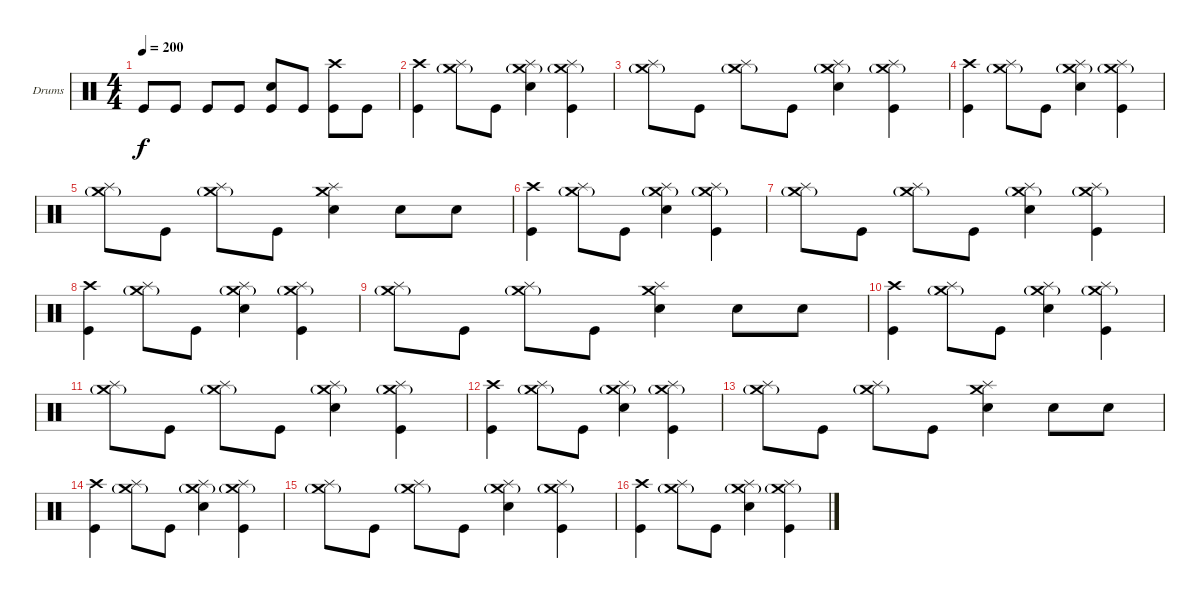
\bracketExtendMode groupsimilarinstruments
\firstSystemTrackNameOrientation horizontal
\otherSystemsTrackNameOrientation horizontal
\track ("Canadien" "Drums") {instrument percussion}
\staff {score}
\articulation defaults
\ts (4 4)
\tempo 200
\clef neutral
\ks c "Kick (hit)".8{dy f} "Kick (hit)".8 "Kick (hit)".8 "Kick (hit)".8
("Snare (hit) 2" "Kick (hit)").8 "Kick (hit)".8 ("Crash high (hit)" "Kick (hit)").8 "Kick (hit)".8 |
("Crash high (hit)" "Kick (hit)").4 ("Crash medium (hit)"{g} "Splash (hit)").8 "Kick (hit)".8 ("Crash medium (hit)"{g} "Splash (hit)" "Snare (hit) 2").4 ("Crash medium (hit)"{g} "Splash (hit)" "Kick (hit)").4 |
("Crash medium (hit)"{g} "Splash (hit)").8 "Kick (hit)".8 ("Crash medium (hit)"{g} "Splash (hit)").8 "Kick (hit)".8 ("Crash medium (hit)"{g} "Splash (hit)" "Snare (hit) 2").4 ("Crash medium (hit)"{g} "Splash (hit)" "Kick (hit)").4 |
("Crash high (hit)" "Kick (hit)").4 ("Crash medium (hit)"{g} "Splash (hit)").8 "Kick (hit)".8 ("Crash medium (hit)"{g} "Splash (hit)" "Snare (hit) 2").4 ("Crash medium (hit)"{g} "Splash (hit)" "Kick (hit)").4 |
("Crash medium (hit)"{g} "Splash (hit)").8 "Kick (hit)".8 ("Crash medium (hit)"{g} "Splash (hit)").8 "Kick (hit)".8 ("Crash medium (hit)" "Splash (hit)" "Snare (hit) 2").4 "Snare (hit) 2".8 "Snare (hit) 2".8 |
("Crash high (hit)" "Kick (hit)").4 ("Crash medium (hit)"{g} "Splash (hit)").8 "Kick (hit)".8 ("Crash medium (hit)"{g} "Splash (hit)" "Snare (hit) 2").4 ("Crash medium (hit)"{g} "Splash (hit)" "Kick (hit)").4 |
("Crash medium (hit)"{g} "Splash (hit)").8 "Kick (hit)".8 ("Crash medium (hit)"{g} "Splash (hit)").8 "Kick (hit)".8 ("Crash medium (hit)"{g} "Splash (hit)" "Snare (hit) 2").4 ("Crash medium (hit)"{g} "Splash (hit)" "Kick (hit)").4 |
("Crash high (hit)" "Kick (hit)").4 ("Crash medium (hit)"{g} "Splash (hit)").8 "Kick (hit)".8 ("Crash medium (hit)"{g} "Splash (hit)" "Snare (hit) 2").4 ("Crash medium (hit)"{g} "Splash (hit)" "Kick (hit)").4 |
("Crash medium (hit)"{g} "Splash (hit)").8 "Kick (hit)".8 ("Crash medium (hit)"{g} "Splash (hit)").8 "Kick (hit)".8 ("Crash medium (hit)" "Splash (hit)" "Snare (hit) 2").4 "Snare (hit) 2".8 "Snare (hit) 2".8 |
("Crash high (hit)" "Kick (hit)").4 ("Crash medium (hit)"{g} "Splash (hit)").8 "Kick (hit)".8 ("Crash medium (hit)"{g} "Splash (hit)" "Snare (hit) 2").4 ("Crash medium (hit)"{g} "Splash (hit)" "Kick (hit)").4 |
("Crash medium (hit)"{g} "Splash (hit)").8 "Kick (hit)".8 ("Crash medium (hit)"{g} "Splash (hit)").8 "Kick (hit)".8 ("Crash medium (hit)"{g} "Splash (hit)" "Snare (hit) 2").4 ("Crash medium (hit)"{g} "Splash (hit)" "Kick (hit)").4 |
("Crash high (hit)" "Kick (hit)").4 ("Crash medium (hit)"{g} "Splash (hit)").8 "Kick (hit)".8 ("Crash medium (hit)"{g} "Splash (hit)" "Snare (hit) 2").4 ("Crash medium (hit)"{g} "Splash (hit)" "Kick (hit)").4 |
("Crash medium (hit)"{g} "Splash (hit)").8 "Kick (hit)".8 ("Crash medium (hit)"{g} "Splash (hit)").8 "Kick (hit)".8 ("Crash medium (hit)" "Splash (hit)" "Snare (hit) 2").4 "Snare (hit) 2".8 "Snare (hit) 2".8 |
("Crash high (hit)" "Kick (hit)").4 ("Crash medium (hit)"{g} "Splash (hit)").8 "Kick (hit)".8 ("Crash medium (hit)"{g} "Splash (hit)" "Snare (hit) 2").4 ("Crash medium (hit)"{g} "Splash (hit)" "Kick (hit)").4 |
("Crash medium (hit)"{g} "Splash (hit)").8 "Kick (hit)".8 ("Crash medium (hit)"{g} "Splash (hit)").8 "Kick (hit)".8 ("Crash medium (hit)"{g} "Splash (hit)" "Snare (hit) 2").4 ("Crash medium (hit)"{g} "Splash (hit)" "Kick (hit)").4 |
("Crash high (hit)" "Kick (hit)").4 ("Crash medium (hit)"{g} "Splash (hit)").8 "Kick (hit)".8 ("Crash medium (hit)"{g} "Splash (hit)" "Snare (hit) 2").4 ("Crash medium (hit)"{g} "Splash (hit)" "Kick (hit)").4
